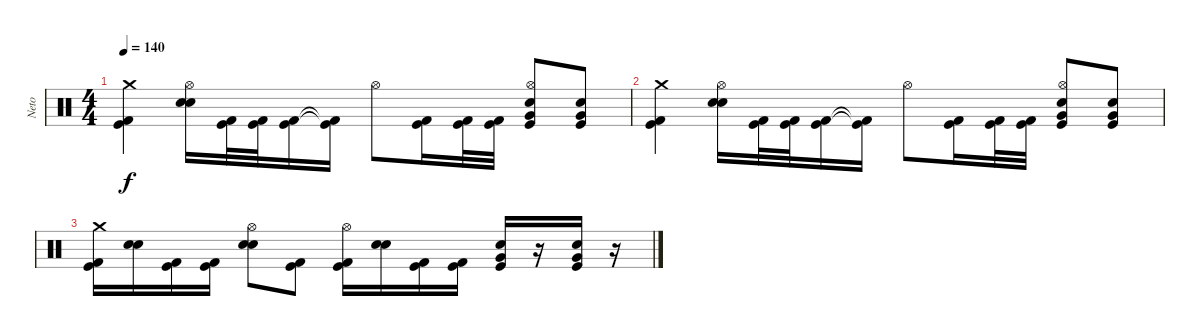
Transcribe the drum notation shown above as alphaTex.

\track ("Neto" "Neto") {instrument percussion}
\staff {score}
\articulation defaults
\ts (4 4)
\tempo 140
\clef neutral
\ks c
("Crash medium (hit)" "Kick (hit)" "Kick (hit) 2").4{dy f} ("Hi-Hat (open)" "Snare (hit) 2" "Snare (hit) 2").16 ("Kick (hit)" "Kick (hit) 2").32 ("Kick (hit)" "Kick (hit) 2").32 ("Kick (hit)" "Kick (hit) 2").16 ("Kick (hit)"{t} "Kick (hit) 2"{t}).16 "Hi-Hat (open)".8 ("Kick (hit)" "Kick (hit) 2").16 ("Kick (hit)" "Kick (hit) 2").32 ("Kick (hit)" "Kick (hit) 2").32 ("Hi-Hat (open)" "Kick (hit)" "Snare (hit) 2" "Very Low Tom (hit)").8 ("Kick (hit)" "Snare (hit) 2" "Very Low Tom (hit)").8 |
("Crash medium (hit)" "Kick (hit)" "Kick (hit) 2").4 ("Hi-Hat (open)" "Snare (hit) 2" "Snare (hit) 2").16 ("Kick (hit)" "Kick (hit) 2").32 ("Kick (hit)" "Kick (hit) 2").32 ("Kick (hit)" "Kick (hit) 2").16 ("Kick (hit)"{t} "Kick (hit) 2"{t}).16 "Hi-Hat (open)".8 ("Kick (hit)" "Kick (hit) 2").16 ("Kick (hit)" "Kick (hit) 2").32 ("Kick (hit)" "Kick (hit) 2").32 ("Hi-Hat (open)" "Kick (hit)" "Snare (hit) 2" "Very Low Tom (hit)").8 ("Kick (hit)" "Snare (hit) 2" "Very Low Tom (hit)").8 |
("Crash medium (hit)" "Kick (hit)" "Kick (hit) 2").16 ("Snare (hit) 2" "Snare (hit) 2").16 ("Kick (hit)" "Kick (hit) 2").16 ("Kick (hit)" "Kick (hit) 2").16 ("Hi-Hat (open)" "Snare (hit) 2" "Snare (hit) 2").8 ("Kick (hit)" "Kick (hit) 2").8 ("Hi-Hat (open)" "Kick (hit)" "Kick (hit) 2").16 ("Snare (hit) 2" "Snare (hit) 2").16 ("Kick (hit)" "Kick (hit) 2").16 ("Kick (hit)" "Kick (hit) 2").16 ("Kick (hit)" "Snare (hit) 2" "Very Low Tom (hit)").16 r.16 ("Kick (hit)" "Snare (hit) 2" "Very Low Tom (hit)").16 r.16
